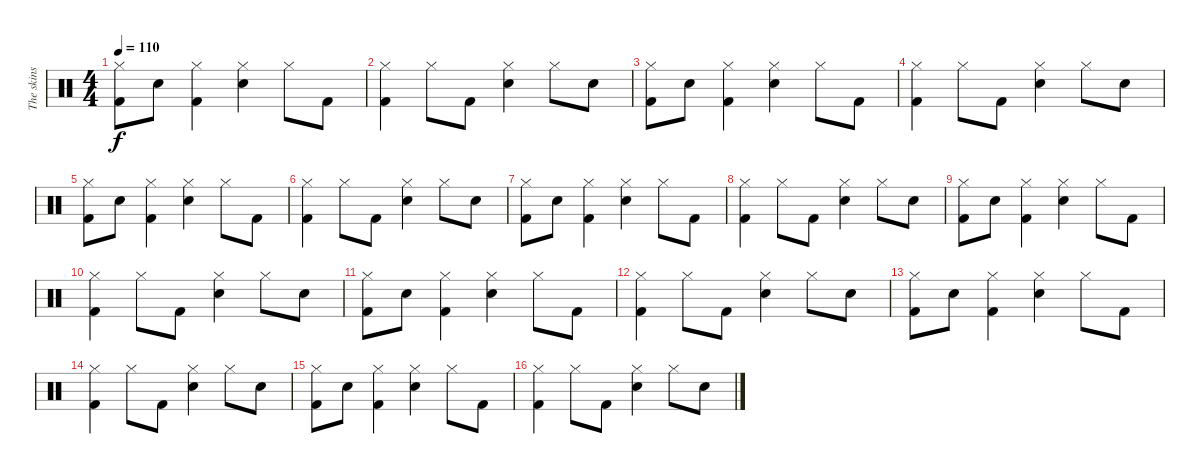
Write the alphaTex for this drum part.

\track ("The skins" "The skins") {instrument percussion}
\staff {score}
\articulation defaults
\ts (4 4)
\tempo 110
\clef neutral
\ks c
("Hi-Hat (closed)" "Kick (hit) 2").8{dy f} "Electric Snare (hit)".8 ("Hi-Hat (closed)" "Kick (hit) 2").4 ("Hi-Hat (closed)" "Electric Snare (hit)").4 "Hi-Hat (closed)".8 "Kick (hit) 2".8 |
("Hi-Hat (closed)" "Kick (hit) 2").4 "Hi-Hat (closed)".8 "Kick (hit) 2".8 ("Hi-Hat (closed)" "Electric Snare (hit)").4 "Hi-Hat (closed)".8 "Electric Snare (hit)".8 |
("Hi-Hat (closed)" "Kick (hit) 2").8 "Electric Snare (hit)".8 ("Hi-Hat (closed)" "Kick (hit) 2").4 ("Hi-Hat (closed)" "Electric Snare (hit)").4 "Hi-Hat (closed)".8 "Kick (hit) 2".8 |
("Hi-Hat (closed)" "Kick (hit) 2").4 "Hi-Hat (closed)".8 "Kick (hit) 2".8 ("Hi-Hat (closed)" "Electric Snare (hit)").4 "Hi-Hat (closed)".8 "Electric Snare (hit)".8 |
("Hi-Hat (closed)" "Kick (hit) 2").8 "Electric Snare (hit)".8 ("Hi-Hat (closed)" "Kick (hit) 2").4 ("Hi-Hat (closed)" "Electric Snare (hit)").4 "Hi-Hat (closed)".8 "Kick (hit) 2".8 |
("Hi-Hat (closed)" "Kick (hit) 2").4 "Hi-Hat (closed)".8 "Kick (hit) 2".8 ("Hi-Hat (closed)" "Electric Snare (hit)").4 "Hi-Hat (closed)".8 "Electric Snare (hit)".8 |
("Hi-Hat (closed)" "Kick (hit) 2").8 "Electric Snare (hit)".8 ("Hi-Hat (closed)" "Kick (hit) 2").4 ("Hi-Hat (closed)" "Electric Snare (hit)").4 "Hi-Hat (closed)".8 "Kick (hit) 2".8 |
("Hi-Hat (closed)" "Kick (hit) 2").4 "Hi-Hat (closed)".8 "Kick (hit) 2".8 ("Hi-Hat (closed)" "Electric Snare (hit)").4 "Hi-Hat (closed)".8 "Electric Snare (hit)".8 |
("Hi-Hat (closed)" "Kick (hit) 2").8 "Electric Snare (hit)".8 ("Hi-Hat (closed)" "Kick (hit) 2").4 ("Hi-Hat (closed)" "Electric Snare (hit)").4 "Hi-Hat (closed)".8 "Kick (hit) 2".8 |
("Hi-Hat (closed)" "Kick (hit) 2").4 "Hi-Hat (closed)".8 "Kick (hit) 2".8 ("Hi-Hat (closed)" "Electric Snare (hit)").4 "Hi-Hat (closed)".8 "Electric Snare (hit)".8 |
("Hi-Hat (closed)" "Kick (hit) 2").8 "Electric Snare (hit)".8 ("Hi-Hat (closed)" "Kick (hit) 2").4 ("Hi-Hat (closed)" "Electric Snare (hit)").4 "Hi-Hat (closed)".8 "Kick (hit) 2".8 |
("Hi-Hat (closed)" "Kick (hit) 2").4 "Hi-Hat (closed)".8 "Kick (hit) 2".8 ("Hi-Hat (closed)" "Electric Snare (hit)").4 "Hi-Hat (closed)".8 "Electric Snare (hit)".8 |
("Hi-Hat (closed)" "Kick (hit) 2").8 "Electric Snare (hit)".8 ("Hi-Hat (closed)" "Kick (hit) 2").4 ("Hi-Hat (closed)" "Electric Snare (hit)").4 "Hi-Hat (closed)".8 "Kick (hit) 2".8 |
("Hi-Hat (closed)" "Kick (hit) 2").4 "Hi-Hat (closed)".8 "Kick (hit) 2".8 ("Hi-Hat (closed)" "Electric Snare (hit)").4 "Hi-Hat (closed)".8 "Electric Snare (hit)".8 |
("Hi-Hat (closed)" "Kick (hit) 2").8 "Electric Snare (hit)".8 ("Hi-Hat (closed)" "Kick (hit) 2").4 ("Hi-Hat (closed)" "Electric Snare (hit)").4 "Hi-Hat (closed)".8 "Kick (hit) 2".8 |
("Hi-Hat (closed)" "Kick (hit) 2").4 "Hi-Hat (closed)".8 "Kick (hit) 2".8 ("Hi-Hat (closed)" "Electric Snare (hit)").4 "Hi-Hat (closed)".8 "Electric Snare (hit)".8
